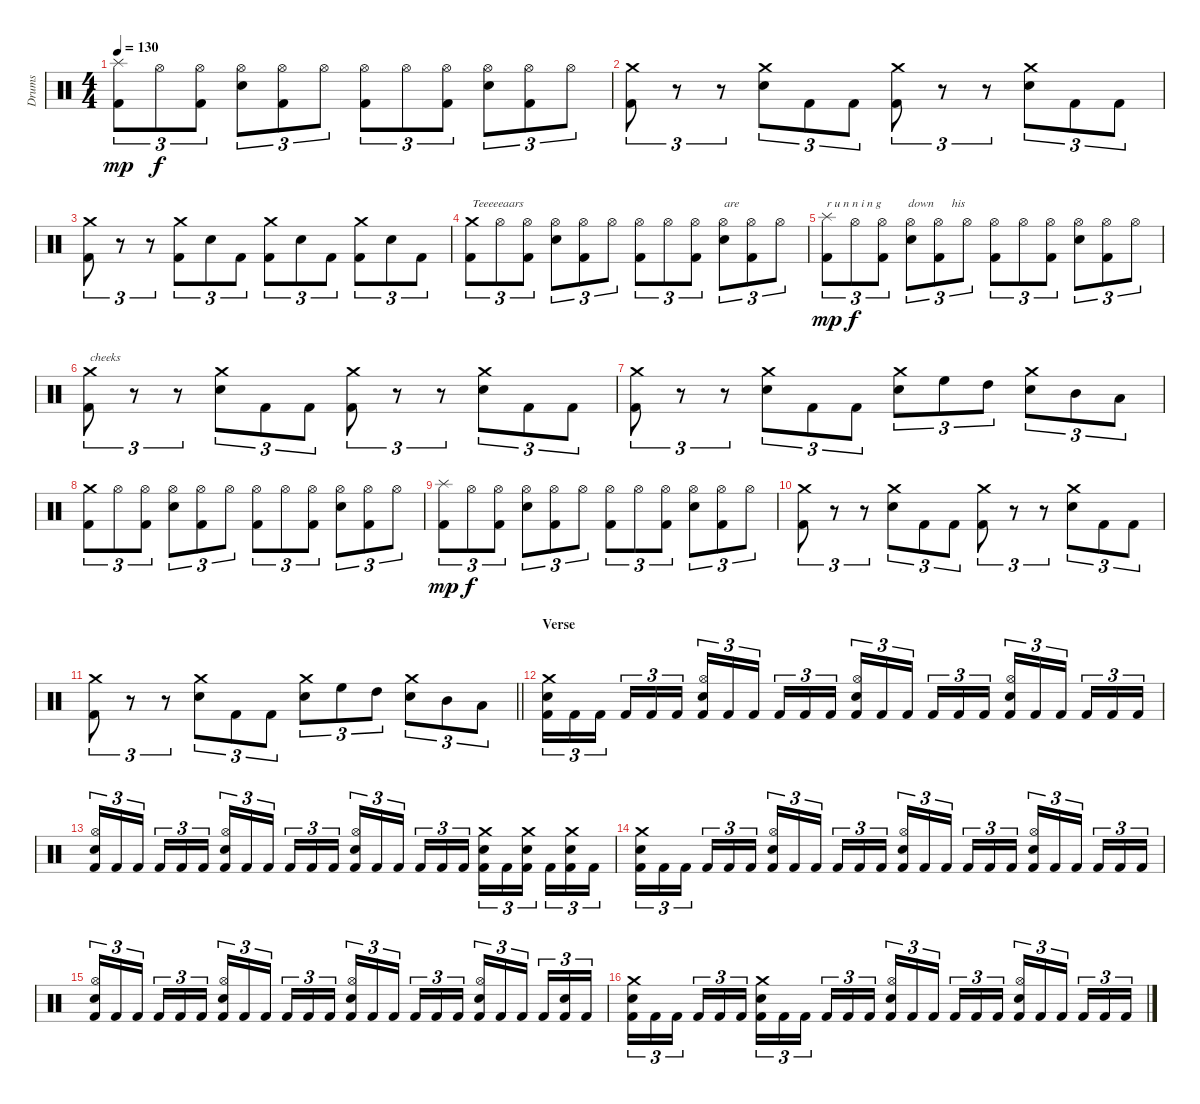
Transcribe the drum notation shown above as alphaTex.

\track ("Drums" "Drums") {instrument percussion}
\staff {score}
\articulation defaults
\ts (4 4)
\tempo 130
\clef neutral
\ks c
("Kick (hit) 2" "Splash (hit)").8{tu (3 2) dy mp} "Hi-Hat (open)".8{tu (3 2) dy f} ("Kick (hit) 2" "Hi-Hat (open)").8{tu (3 2)} ("Electric Snare (hit)" "Hi-Hat (open)").8{tu (3 2)} ("Kick (hit) 2" "Hi-Hat (open)").8{tu (3 2)} "Hi-Hat (open)".8{tu (3 2)} ("Kick (hit) 2" "Hi-Hat (open)").8{tu (3 2)} "Hi-Hat (open)".8{tu (3 2)} ("Kick (hit) 2" "Hi-Hat (open)").8{tu (3 2)} ("Electric Snare (hit)" "Hi-Hat (open)").8{tu (3 2)} ("Kick (hit) 2" "Hi-Hat (open)").8{tu (3 2)} "Hi-Hat (open)".8{tu (3 2)} |
("Kick (hit) 2" "Crash medium (hit)").8{tu (3 2)} r.8{tu (3 2)} r.8{tu (3 2)} ("Electric Snare (hit)" "Crash medium (hit)").8{tu (3 2)} "Kick (hit) 2".8{tu (3 2)} "Kick (hit) 2".8{tu (3 2)} ("Kick (hit) 2" "Crash medium (hit)").8{tu (3 2)} r.8{tu (3 2)} r.8{tu (3 2)} ("Electric Snare (hit)" "Crash medium (hit)").8{tu (3 2)} "Kick (hit) 2".8{tu (3 2)} "Kick (hit) 2".8{tu (3 2)} |
("Kick (hit) 2" "Crash medium (hit)").8{tu (3 2)} r.8{tu (3 2)} r.8{tu (3 2)} ("Kick (hit) 2" "Crash medium (hit)").8{tu (3 2)} "Electric Snare (hit)".8{tu (3 2)} "Kick (hit) 2".8{tu (3 2)} ("Kick (hit) 2" "Crash medium (hit)").8{tu (3 2)} "Electric Snare (hit)".8{tu (3 2)} "Kick (hit) 2".8{tu (3 2)} ("Kick (hit) 2" "Crash medium (hit)").8{tu (3 2)} "Electric Snare (hit)".8{tu (3 2)} "Kick (hit) 2".8{tu (3 2)} |
("Kick (hit) 2" "Crash medium (hit)").8{tu (3 2) txt "Teeeeeaars"} "Hi-Hat (open)".8{tu (3 2)} ("Kick (hit) 2" "Hi-Hat (open)").8{tu (3 2)} ("Electric Snare (hit)" "Hi-Hat (open)").8{tu (3 2)} ("Kick (hit) 2" "Hi-Hat (open)").8{tu (3 2)} "Hi-Hat (open)".8{tu (3 2)} ("Kick (hit) 2" "Hi-Hat (open)").8{tu (3 2)} "Hi-Hat (open)".8{tu (3 2)} ("Kick (hit) 2" "Hi-Hat (open)").8{tu (3 2)} ("Electric Snare (hit)" "Hi-Hat (open)").8{tu (3 2) txt "are"} ("Kick (hit) 2" "Hi-Hat (open)").8{tu (3 2)} "Hi-Hat (open)".8{tu (3 2)} |
("Kick (hit) 2" "Splash (hit)").8{tu (3 2) txt "r u n n i n g         down      his" dy mp} "Hi-Hat (open)".8{tu (3 2) dy f} ("Kick (hit) 2" "Hi-Hat (open)").8{tu (3 2)} ("Electric Snare (hit)" "Hi-Hat (open)").8{tu (3 2)} ("Kick (hit) 2" "Hi-Hat (open)").8{tu (3 2)} "Hi-Hat (open)".8{tu (3 2)} ("Kick (hit) 2" "Hi-Hat (open)").8{tu (3 2)} "Hi-Hat (open)".8{tu (3 2)} ("Kick (hit) 2" "Hi-Hat (open)").8{tu (3 2)} ("Electric Snare (hit)" "Hi-Hat (open)").8{tu (3 2)} ("Kick (hit) 2" "Hi-Hat (open)").8{tu (3 2)} "Hi-Hat (open)".8{tu (3 2)} |
("Kick (hit) 2" "Crash medium (hit)").8{tu (3 2) txt "cheeks"} r.8{tu (3 2)} r.8{tu (3 2)} ("Electric Snare (hit)" "Crash medium (hit)").8{tu (3 2)} "Kick (hit) 2".8{tu (3 2)} "Kick (hit) 2".8{tu (3 2)} ("Kick (hit) 2" "Crash medium (hit)").8{tu (3 2)} r.8{tu (3 2)} r.8{tu (3 2)} ("Electric Snare (hit)" "Crash medium (hit)").8{tu (3 2)} "Kick (hit) 2".8{tu (3 2)} "Kick (hit) 2".8{tu (3 2)} |
("Kick (hit) 2" "Crash medium (hit)").8{tu (3 2)} r.8{tu (3 2)} r.8{tu (3 2)} ("Electric Snare (hit)" "Crash medium (hit)").8{tu (3 2)} "Kick (hit) 2".8{tu (3 2)} "Kick (hit) 2".8{tu (3 2)} ("Electric Snare (hit)" "Crash medium (hit)").8{tu (3 2)} "High Floor Tom (hit)".8{tu (3 2)} "High Tom (hit)".8{tu (3 2)} ("Electric Snare (hit)" "Crash medium (hit)").8{tu (3 2)} "Mid Tom (hit)".8{tu (3 2)} "Low Tom (hit)".8{tu (3 2)} |
("Kick (hit) 2" "Crash medium (hit)").8{tu (3 2)} "Hi-Hat (open)".8{tu (3 2)} ("Kick (hit) 2" "Hi-Hat (open)").8{tu (3 2)} ("Electric Snare (hit)" "Hi-Hat (open)").8{tu (3 2)} ("Kick (hit) 2" "Hi-Hat (open)").8{tu (3 2)} "Hi-Hat (open)".8{tu (3 2)} ("Kick (hit) 2" "Hi-Hat (open)").8{tu (3 2)} "Hi-Hat (open)".8{tu (3 2)} ("Kick (hit) 2" "Hi-Hat (open)").8{tu (3 2)} ("Electric Snare (hit)" "Hi-Hat (open)").8{tu (3 2)} ("Kick (hit) 2" "Hi-Hat (open)").8{tu (3 2)} "Hi-Hat (open)".8{tu (3 2)} |
("Kick (hit) 2" "Splash (hit)").8{tu (3 2) dy mp} "Hi-Hat (open)".8{tu (3 2) dy f} ("Kick (hit) 2" "Hi-Hat (open)").8{tu (3 2)} ("Electric Snare (hit)" "Hi-Hat (open)").8{tu (3 2)} ("Kick (hit) 2" "Hi-Hat (open)").8{tu (3 2)} "Hi-Hat (open)".8{tu (3 2)} ("Kick (hit) 2" "Hi-Hat (open)").8{tu (3 2)} "Hi-Hat (open)".8{tu (3 2)} ("Kick (hit) 2" "Hi-Hat (open)").8{tu (3 2)} ("Electric Snare (hit)" "Hi-Hat (open)").8{tu (3 2)} ("Kick (hit) 2" "Hi-Hat (open)").8{tu (3 2)} "Hi-Hat (open)".8{tu (3 2)} |
("Kick (hit) 2" "Crash medium (hit)").8{tu (3 2)} r.8{tu (3 2)} r.8{tu (3 2)} ("Electric Snare (hit)" "Crash medium (hit)").8{tu (3 2)} "Kick (hit) 2".8{tu (3 2)} "Kick (hit) 2".8{tu (3 2)} ("Kick (hit) 2" "Crash medium (hit)").8{tu (3 2)} r.8{tu (3 2)} r.8{tu (3 2)} ("Electric Snare (hit)" "Crash medium (hit)").8{tu (3 2)} "Kick (hit) 2".8{tu (3 2)} "Kick (hit) 2".8{tu (3 2)} |
\barLineRight lightlight
("Kick (hit) 2" "Crash medium (hit)").8{tu (3 2)} r.8{tu (3 2)} r.8{tu (3 2)} ("Electric Snare (hit)" "Crash medium (hit)").8{tu (3 2)} "Kick (hit) 2".8{tu (3 2)} "Kick (hit) 2".8{tu (3 2)} ("Electric Snare (hit)" "Crash medium (hit)").8{tu (3 2)} "High Floor Tom (hit)".8{tu (3 2)} "High Tom (hit)".8{tu (3 2)} ("Electric Snare (hit)" "Crash medium (hit)").8{tu (3 2)} "Mid Tom (hit)".8{tu (3 2)} "Low Tom (hit)".8{tu (3 2)} |
\section ("" "Verse")
("Kick (hit) 2" "Electric Snare (hit)" "Crash medium (hit)").16{tu (3 2)} "Kick (hit) 2".16{tu (3 2)} "Kick (hit) 2".16{tu (3 2) beam splitsecondary} "Kick (hit) 2".16{tu (3 2)} "Kick (hit) 2".16{tu (3 2)} "Kick (hit) 2".16{tu (3 2)} ("Kick (hit) 2" "Electric Snare (hit)" "Hi-Hat (open)").16{tu (3 2)} "Kick (hit) 2".16{tu (3 2)} "Kick (hit) 2".16{tu (3 2) beam splitsecondary} "Kick (hit) 2".16{tu (3 2)} "Kick (hit) 2".16{tu (3 2)} "Kick (hit) 2".16{tu (3 2)} ("Kick (hit) 2" "Electric Snare (hit)" "Hi-Hat (open)").16{tu (3 2)} "Kick (hit) 2".16{tu (3 2)} "Kick (hit) 2".16{tu (3 2) beam splitsecondary} "Kick (hit) 2".16{tu (3 2)} "Kick (hit) 2".16{tu (3 2)} "Kick (hit) 2".16{tu (3 2)} ("Kick (hit) 2" "Electric Snare (hit)" "Hi-Hat (open)").16{tu (3 2)} "Kick (hit) 2".16{tu (3 2)} "Kick (hit) 2".16{tu (3 2) beam splitsecondary} "Kick (hit) 2".16{tu (3 2)} "Kick (hit) 2".16{tu (3 2)} "Kick (hit) 2".16{tu (3 2)} |
("Kick (hit) 2" "Electric Snare (hit)" "Hi-Hat (open)").16{tu (3 2)} "Kick (hit) 2".16{tu (3 2)} "Kick (hit) 2".16{tu (3 2) beam splitsecondary} "Kick (hit) 2".16{tu (3 2)} "Kick (hit) 2".16{tu (3 2)} "Kick (hit) 2".16{tu (3 2)} ("Kick (hit) 2" "Electric Snare (hit)" "Hi-Hat (open)").16{tu (3 2)} "Kick (hit) 2".16{tu (3 2)} "Kick (hit) 2".16{tu (3 2) beam splitsecondary} "Kick (hit) 2".16{tu (3 2)} "Kick (hit) 2".16{tu (3 2)} "Kick (hit) 2".16{tu (3 2)} ("Kick (hit) 2" "Electric Snare (hit)" "Hi-Hat (open)").16{tu (3 2)} "Kick (hit) 2".16{tu (3 2)} "Kick (hit) 2".16{tu (3 2) beam splitsecondary} "Kick (hit) 2".16{tu (3 2)} "Kick (hit) 2".16{tu (3 2)} "Kick (hit) 2".16{tu (3 2)} ("Kick (hit) 2" "Electric Snare (hit)" "Crash medium (hit)").16{tu (3 2)} "Kick (hit) 2".16{tu (3 2)} ("Kick (hit) 2" "Electric Snare (hit)" "Crash medium (hit)").16{tu (3 2) beam splitsecondary} "Kick (hit) 2".16{tu (3 2)} ("Kick (hit) 2" "Electric Snare (hit)" "Crash medium (hit)").16{tu (3 2)} "Kick (hit) 2".16{tu (3 2)} |
("Kick (hit) 2" "Electric Snare (hit)" "Crash medium (hit)").16{tu (3 2)} "Kick (hit) 2".16{tu (3 2)} "Kick (hit) 2".16{tu (3 2) beam splitsecondary} "Kick (hit) 2".16{tu (3 2)} "Kick (hit) 2".16{tu (3 2)} "Kick (hit) 2".16{tu (3 2)} ("Kick (hit) 2" "Electric Snare (hit)" "Hi-Hat (open)").16{tu (3 2)} "Kick (hit) 2".16{tu (3 2)} "Kick (hit) 2".16{tu (3 2) beam splitsecondary} "Kick (hit) 2".16{tu (3 2)} "Kick (hit) 2".16{tu (3 2)} "Kick (hit) 2".16{tu (3 2)} ("Kick (hit) 2" "Electric Snare (hit)" "Hi-Hat (open)").16{tu (3 2)} "Kick (hit) 2".16{tu (3 2)} "Kick (hit) 2".16{tu (3 2) beam splitsecondary} "Kick (hit) 2".16{tu (3 2)} "Kick (hit) 2".16{tu (3 2)} "Kick (hit) 2".16{tu (3 2)} ("Kick (hit) 2" "Electric Snare (hit)" "Hi-Hat (open)").16{tu (3 2)} "Kick (hit) 2".16{tu (3 2)} "Kick (hit) 2".16{tu (3 2) beam splitsecondary} "Kick (hit) 2".16{tu (3 2)} "Kick (hit) 2".16{tu (3 2)} "Kick (hit) 2".16{tu (3 2)} |
("Kick (hit) 2" "Electric Snare (hit)" "Hi-Hat (open)").16{tu (3 2)} "Kick (hit) 2".16{tu (3 2)} "Kick (hit) 2".16{tu (3 2) beam splitsecondary} "Kick (hit) 2".16{tu (3 2)} "Kick (hit) 2".16{tu (3 2)} "Kick (hit) 2".16{tu (3 2)} ("Kick (hit) 2" "Electric Snare (hit)" "Hi-Hat (open)").16{tu (3 2)} "Kick (hit) 2".16{tu (3 2)} "Kick (hit) 2".16{tu (3 2) beam splitsecondary} "Kick (hit) 2".16{tu (3 2)} "Kick (hit) 2".16{tu (3 2)} "Kick (hit) 2".16{tu (3 2)} ("Kick (hit) 2" "Electric Snare (hit)" "Hi-Hat (open)").16{tu (3 2)} "Kick (hit) 2".16{tu (3 2)} "Kick (hit) 2".16{tu (3 2) beam splitsecondary} "Kick (hit) 2".16{tu (3 2)} "Kick (hit) 2".16{tu (3 2)} "Kick (hit) 2".16{tu (3 2)} ("Kick (hit) 2" "Electric Snare (hit)" "Hi-Hat (open)").16{tu (3 2)} "Kick (hit) 2".16{tu (3 2)} "Kick (hit) 2".16{tu (3 2) beam splitsecondary} "Kick (hit) 2".16{tu (3 2)} ("Kick (hit) 2" "Electric Snare (hit)").16{tu (3 2)} "Kick (hit) 2".16{tu (3 2)} |
("Kick (hit) 2" "Electric Snare (hit)" "Crash medium (hit)").16{tu (3 2)} "Kick (hit) 2".16{tu (3 2)} "Kick (hit) 2".16{tu (3 2) beam splitsecondary} "Kick (hit) 2".16{tu (3 2)} "Kick (hit) 2".16{tu (3 2)} "Kick (hit) 2".16{tu (3 2)} ("Kick (hit) 2" "Electric Snare (hit)" "Crash medium (hit)").16{tu (3 2)} "Kick (hit) 2".16{tu (3 2)} "Kick (hit) 2".16{tu (3 2) beam splitsecondary} "Kick (hit) 2".16{tu (3 2)} "Kick (hit) 2".16{tu (3 2)} "Kick (hit) 2".16{tu (3 2)} ("Kick (hit) 2" "Electric Snare (hit)" "Hi-Hat (open)").16{tu (3 2)} "Kick (hit) 2".16{tu (3 2)} "Kick (hit) 2".16{tu (3 2) beam splitsecondary} "Kick (hit) 2".16{tu (3 2)} "Kick (hit) 2".16{tu (3 2)} "Kick (hit) 2".16{tu (3 2)} ("Kick (hit) 2" "Electric Snare (hit)" "Hi-Hat (open)").16{tu (3 2)} "Kick (hit) 2".16{tu (3 2)} "Kick (hit) 2".16{tu (3 2) beam splitsecondary} "Kick (hit) 2".16{tu (3 2)} "Kick (hit) 2".16{tu (3 2)} "Kick (hit) 2".16{tu (3 2)}
